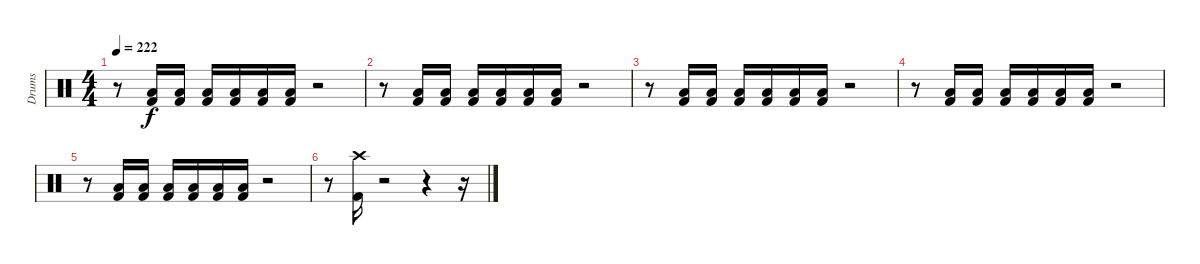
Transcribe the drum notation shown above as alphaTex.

\track ("Drums" "Drums") {instrument percussion}
\staff {score}
\articulation defaults
\ts (4 4)
\tempo 222
\clef neutral
\ks c
r.8{dy f} ("Kick (hit) 2" "Low Floor Tom (hit)").16 ("Kick (hit) 2" "Low Floor Tom (hit)").16 ("Kick (hit) 2" "Low Floor Tom (hit)").16 ("Kick (hit) 2" "Low Floor Tom (hit)").16 ("Kick (hit) 2" "Low Floor Tom (hit)").16 ("Kick (hit) 2" "Low Floor Tom (hit)").16 r.2 |
r.8 ("Kick (hit) 2" "Low Floor Tom (hit)").16 ("Kick (hit) 2" "Low Floor Tom (hit)").16 ("Kick (hit) 2" "Low Floor Tom (hit)").16 ("Kick (hit) 2" "Low Floor Tom (hit)").16 ("Kick (hit) 2" "Low Floor Tom (hit)").16 ("Kick (hit) 2" "Low Floor Tom (hit)").16 r.2 |
r.8 ("Kick (hit) 2" "Low Floor Tom (hit)").16 ("Kick (hit) 2" "Low Floor Tom (hit)").16 ("Kick (hit) 2" "Low Floor Tom (hit)").16 ("Kick (hit) 2" "Low Floor Tom (hit)").16 ("Kick (hit) 2" "Low Floor Tom (hit)").16 ("Kick (hit) 2" "Low Floor Tom (hit)").16 r.2 |
r.8 ("Kick (hit) 2" "Low Floor Tom (hit)").16 ("Kick (hit) 2" "Low Floor Tom (hit)").16 ("Kick (hit) 2" "Low Floor Tom (hit)").16 ("Kick (hit) 2" "Low Floor Tom (hit)").16 ("Kick (hit) 2" "Low Floor Tom (hit)").16 ("Kick (hit) 2" "Low Floor Tom (hit)").16 r.2 |
r.8 ("Kick (hit) 2" "Low Floor Tom (hit)").16 ("Kick (hit) 2" "Low Floor Tom (hit)").16 ("Kick (hit) 2" "Low Floor Tom (hit)").16 ("Kick (hit) 2" "Low Floor Tom (hit)").16 ("Kick (hit) 2" "Low Floor Tom (hit)").16 ("Kick (hit) 2" "Low Floor Tom (hit)").16 r.2 |
r.8 ("Kick (hit) 2" "Crash high (hit)").16 r.2 r.4 r.16
